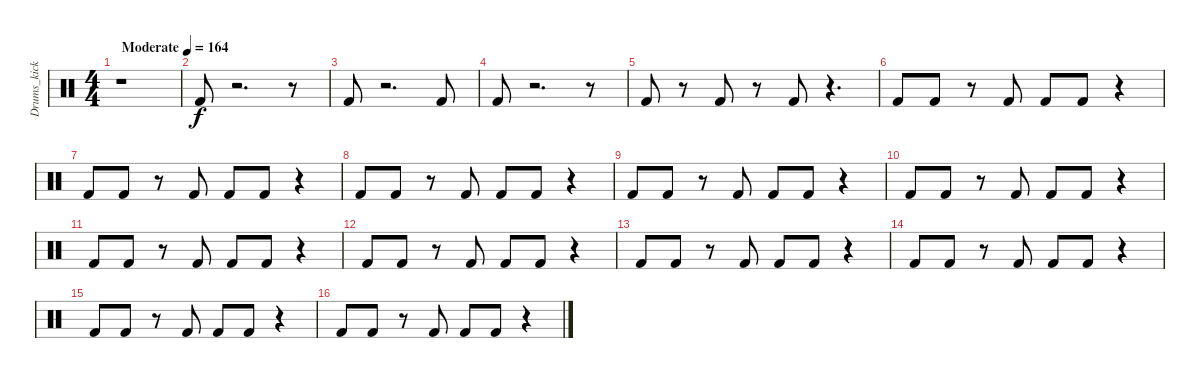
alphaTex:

\track ("Drums_kick" "Drums_kick") {instrument percussion}
\staff {score}
\articulation defaults
\ts (4 4)
\tempo (164 "Moderate")
\clef neutral
\ks c
r.1{dy f} |
"Kick (hit) 2".8 r.2{d} r.8 |
"Kick (hit) 2".8 r.2{d} "Kick (hit) 2".8 |
"Kick (hit) 2".8 r.2{d} r.8 |
"Kick (hit) 2".8 r.8 "Kick (hit) 2".8 r.8 "Kick (hit) 2".8 r.4{d} |
"Kick (hit) 2".8 "Kick (hit) 2".8 r.8 "Kick (hit) 2".8 "Kick (hit) 2".8 "Kick (hit) 2".8 r.4 |
"Kick (hit) 2".8 "Kick (hit) 2".8 r.8 "Kick (hit) 2".8 "Kick (hit) 2".8 "Kick (hit) 2".8 r.4 |
"Kick (hit) 2".8 "Kick (hit) 2".8 r.8 "Kick (hit) 2".8 "Kick (hit) 2".8 "Kick (hit) 2".8 r.4 |
"Kick (hit) 2".8 "Kick (hit) 2".8 r.8 "Kick (hit) 2".8 "Kick (hit) 2".8 "Kick (hit) 2".8 r.4 |
"Kick (hit) 2".8 "Kick (hit) 2".8 r.8 "Kick (hit) 2".8 "Kick (hit) 2".8 "Kick (hit) 2".8 r.4 |
"Kick (hit) 2".8 "Kick (hit) 2".8 r.8 "Kick (hit) 2".8 "Kick (hit) 2".8 "Kick (hit) 2".8 r.4 |
"Kick (hit) 2".8 "Kick (hit) 2".8 r.8 "Kick (hit) 2".8 "Kick (hit) 2".8 "Kick (hit) 2".8 r.4 |
"Kick (hit) 2".8 "Kick (hit) 2".8 r.8 "Kick (hit) 2".8 "Kick (hit) 2".8 "Kick (hit) 2".8 r.4 |
"Kick (hit) 2".8 "Kick (hit) 2".8 r.8 "Kick (hit) 2".8 "Kick (hit) 2".8 "Kick (hit) 2".8 r.4 |
"Kick (hit) 2".8 "Kick (hit) 2".8 r.8 "Kick (hit) 2".8 "Kick (hit) 2".8 "Kick (hit) 2".8 r.4 |
"Kick (hit) 2".8 "Kick (hit) 2".8 r.8 "Kick (hit) 2".8 "Kick (hit) 2".8 "Kick (hit) 2".8 r.4
